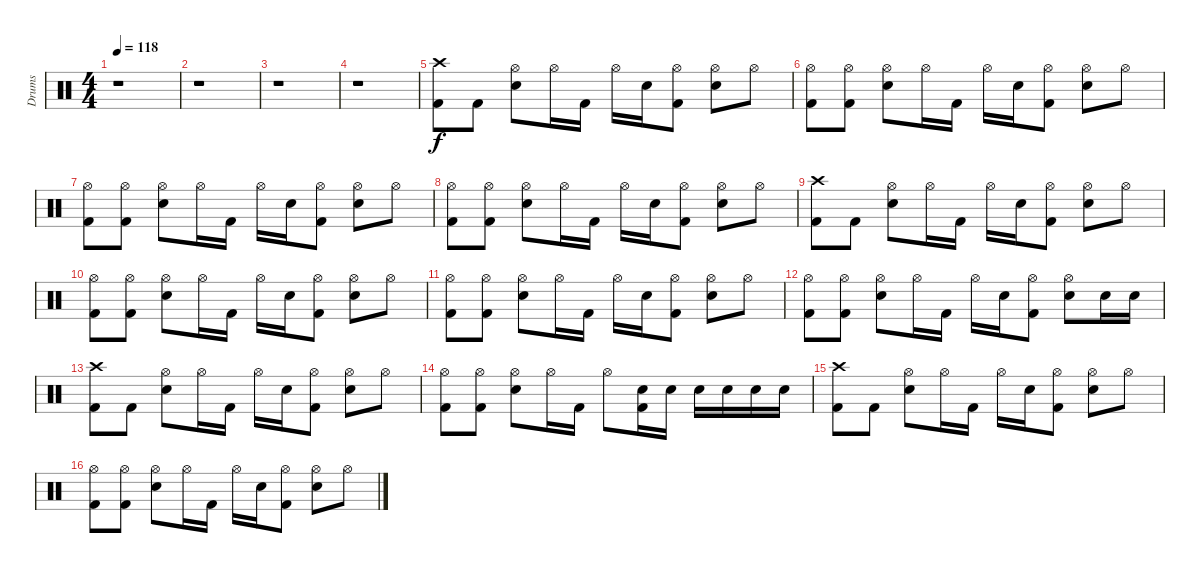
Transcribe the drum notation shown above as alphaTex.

\track ("Drums" "Drums") {instrument percussion}
\staff {score}
\articulation defaults
\ts (4 4)
\tempo 118
\clef neutral
\ks c
r.1{dy f} |
r.1 |
r.1 |
r.1 |
("Crash high (hit)" "Kick (hit) 2").8 "Kick (hit) 2".8 ("Hi-Hat (open)" "Electric Snare (hit)").8 "Hi-Hat (open)".16 "Kick (hit) 2".16 "Hi-Hat (open)".16 "Electric Snare (hit)".16 ("Hi-Hat (open)" "Kick (hit) 2").8 ("Hi-Hat (open)" "Electric Snare (hit)").8 "Hi-Hat (open)".8 |
("Hi-Hat (open)" "Kick (hit) 2").8 ("Hi-Hat (open)" "Kick (hit) 2").8 ("Hi-Hat (open)" "Electric Snare (hit)").8 "Hi-Hat (open)".16 "Kick (hit) 2".16 "Hi-Hat (open)".16 "Electric Snare (hit)".16 ("Hi-Hat (open)" "Kick (hit) 2").8 ("Hi-Hat (open)" "Electric Snare (hit)").8 "Hi-Hat (open)".8 |
("Hi-Hat (open)" "Kick (hit) 2").8 ("Hi-Hat (open)" "Kick (hit) 2").8 ("Hi-Hat (open)" "Electric Snare (hit)").8 "Hi-Hat (open)".16 "Kick (hit) 2".16 "Hi-Hat (open)".16 "Electric Snare (hit)".16 ("Hi-Hat (open)" "Kick (hit) 2").8 ("Hi-Hat (open)" "Electric Snare (hit)").8 "Hi-Hat (open)".8 |
("Hi-Hat (open)" "Kick (hit) 2").8 ("Hi-Hat (open)" "Kick (hit) 2").8 ("Hi-Hat (open)" "Electric Snare (hit)").8 "Hi-Hat (open)".16 "Kick (hit) 2".16 "Hi-Hat (open)".16 "Electric Snare (hit)".16 ("Hi-Hat (open)" "Kick (hit) 2").8 ("Hi-Hat (open)" "Electric Snare (hit)").8 "Hi-Hat (open)".8 |
("Crash high (hit)" "Kick (hit) 2").8 "Kick (hit) 2".8 ("Hi-Hat (open)" "Electric Snare (hit)").8 "Hi-Hat (open)".16 "Kick (hit) 2".16 "Hi-Hat (open)".16 "Electric Snare (hit)".16 ("Hi-Hat (open)" "Kick (hit) 2").8 ("Hi-Hat (open)" "Electric Snare (hit)").8 "Hi-Hat (open)".8 |
("Hi-Hat (open)" "Kick (hit) 2").8 ("Hi-Hat (open)" "Kick (hit) 2").8 ("Hi-Hat (open)" "Electric Snare (hit)").8 "Hi-Hat (open)".16 "Kick (hit) 2".16 "Hi-Hat (open)".16 "Electric Snare (hit)".16 ("Hi-Hat (open)" "Kick (hit) 2").8 ("Hi-Hat (open)" "Electric Snare (hit)").8 "Hi-Hat (open)".8 |
("Hi-Hat (open)" "Kick (hit) 2").8 ("Hi-Hat (open)" "Kick (hit) 2").8 ("Hi-Hat (open)" "Electric Snare (hit)").8 "Hi-Hat (open)".16 "Kick (hit) 2".16 "Hi-Hat (open)".16 "Electric Snare (hit)".16 ("Hi-Hat (open)" "Kick (hit) 2").8 ("Hi-Hat (open)" "Electric Snare (hit)").8 "Hi-Hat (open)".8 |
("Hi-Hat (open)" "Kick (hit) 2").8 ("Hi-Hat (open)" "Kick (hit) 2").8 ("Hi-Hat (open)" "Electric Snare (hit)").8 "Hi-Hat (open)".16 "Kick (hit) 2".16 "Hi-Hat (open)".16 "Electric Snare (hit)".16 ("Hi-Hat (open)" "Kick (hit) 2").8 ("Hi-Hat (open)" "Electric Snare (hit)").8 "Electric Snare (hit)".16 "Electric Snare (hit)".16 |
("Crash high (hit)" "Kick (hit) 2").8 "Kick (hit) 2".8 ("Hi-Hat (open)" "Electric Snare (hit)").8 "Hi-Hat (open)".16 "Kick (hit) 2".16 "Hi-Hat (open)".16 "Electric Snare (hit)".16 ("Hi-Hat (open)" "Kick (hit) 2").8 ("Hi-Hat (open)" "Electric Snare (hit)").8 "Hi-Hat (open)".8 |
("Hi-Hat (open)" "Kick (hit) 2").8 ("Hi-Hat (open)" "Kick (hit) 2").8 ("Hi-Hat (open)" "Electric Snare (hit)").8 "Hi-Hat (open)".16 "Kick (hit) 2".16 "Hi-Hat (open)".8 ("Electric Snare (hit)" "Kick (hit) 2").16 "Electric Snare (hit)".16 "Electric Snare (hit)".16 "Electric Snare (hit)".16 "Electric Snare (hit)".16 "Electric Snare (hit)".16 |
("Crash high (hit)" "Kick (hit) 2").8 "Kick (hit) 2".8 ("Hi-Hat (open)" "Electric Snare (hit)").8 "Hi-Hat (open)".16 "Kick (hit) 2".16 "Hi-Hat (open)".16 "Electric Snare (hit)".16 ("Hi-Hat (open)" "Kick (hit) 2").8 ("Hi-Hat (open)" "Electric Snare (hit)").8 "Hi-Hat (open)".8 |
("Hi-Hat (open)" "Kick (hit) 2").8 ("Hi-Hat (open)" "Kick (hit) 2").8 ("Hi-Hat (open)" "Electric Snare (hit)").8 "Hi-Hat (open)".16 "Kick (hit) 2".16 "Hi-Hat (open)".16 "Electric Snare (hit)".16 ("Hi-Hat (open)" "Kick (hit) 2").8 ("Hi-Hat (open)" "Electric Snare (hit)").8 "Hi-Hat (open)".8
